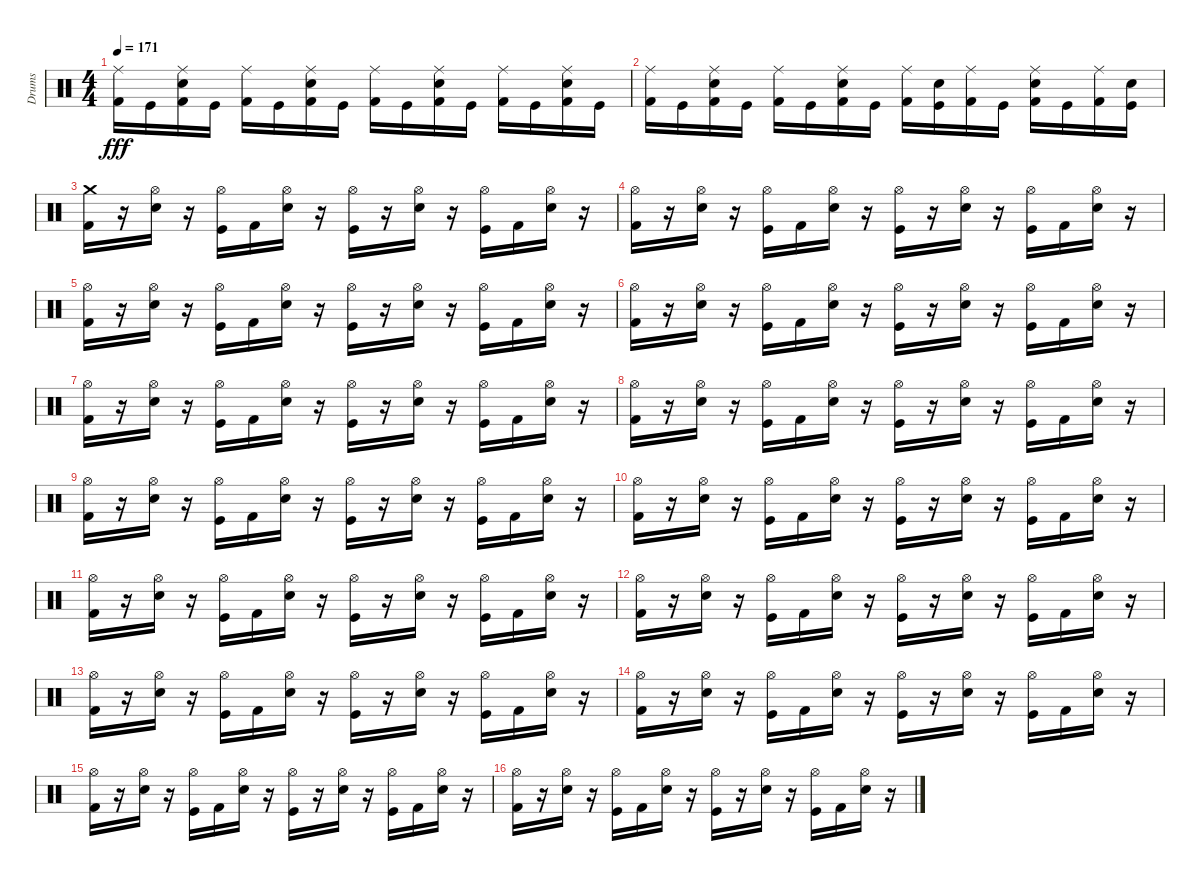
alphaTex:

\track ("Drums" "Drums") {instrument percussion}
\staff {score}
\articulation defaults
\ts (4 4)
\tempo 171
\clef neutral
\ks c
("Ride (middle)" "Kick (hit) 2").16{dy fff} "Kick (hit)".16 ("Ride (middle)" "Electric Snare (hit)" "Kick (hit) 2").16 "Kick (hit)".16 ("Ride (middle)" "Kick (hit) 2").16 "Kick (hit)".16 ("Ride (middle)" "Electric Snare (hit)" "Kick (hit) 2").16 "Kick (hit)".16 ("Ride (middle)" "Kick (hit) 2").16 "Kick (hit)".16 ("Ride (middle)" "Electric Snare (hit)" "Kick (hit) 2").16 "Kick (hit)".16 ("Ride (middle)" "Kick (hit) 2").16 "Kick (hit)".16 ("Ride (middle)" "Electric Snare (hit)" "Kick (hit) 2").16 "Kick (hit)".16 |
("Ride (middle)" "Kick (hit) 2").16 "Kick (hit)".16 ("Ride (middle)" "Electric Snare (hit)" "Kick (hit) 2").16 "Kick (hit)".16 ("Ride (middle)" "Kick (hit) 2").16 "Kick (hit)".16 ("Ride (middle)" "Electric Snare (hit)" "Kick (hit) 2").16 "Kick (hit)".16 ("Ride (middle)" "Kick (hit) 2").16 ("Electric Snare (hit)" "Kick (hit)").16 ("Ride (middle)" "Kick (hit) 2").16 "Kick (hit)".16 ("Ride (middle)" "Electric Snare (hit)" "Kick (hit) 2").16 "Kick (hit)".16 ("Ride (middle)" "Kick (hit) 2").16 ("Electric Snare (hit)" "Kick (hit)").16 |
("Crash medium (hit)" "Kick (hit) 2").16 r.16 ("Hi-Hat (open)" "Electric Snare (hit)").16 r.16 ("Hi-Hat (open)" "Kick (hit)").16 "Kick (hit) 2".16 ("Hi-Hat (open)" "Electric Snare (hit)").16 r.16 ("Hi-Hat (open)" "Kick (hit)").16 r.16 ("Hi-Hat (open)" "Electric Snare (hit)").16 r.16 ("Hi-Hat (open)" "Kick (hit)").16 "Kick (hit) 2".16 ("Hi-Hat (open)" "Electric Snare (hit)").16 r.16 |
("Hi-Hat (open)" "Kick (hit) 2").16 r.16 ("Hi-Hat (open)" "Electric Snare (hit)").16 r.16 ("Hi-Hat (open)" "Kick (hit)").16 "Kick (hit) 2".16 ("Hi-Hat (open)" "Electric Snare (hit)").16 r.16 ("Hi-Hat (open)" "Kick (hit)").16 r.16 ("Hi-Hat (open)" "Electric Snare (hit)").16 r.16 ("Hi-Hat (open)" "Kick (hit)").16 "Kick (hit) 2".16 ("Hi-Hat (open)" "Electric Snare (hit)").16 r.16 |
("Hi-Hat (open)" "Kick (hit) 2").16 r.16 ("Hi-Hat (open)" "Electric Snare (hit)").16 r.16 ("Hi-Hat (open)" "Kick (hit)").16 "Kick (hit) 2".16 ("Hi-Hat (open)" "Electric Snare (hit)").16 r.16 ("Hi-Hat (open)" "Kick (hit)").16 r.16 ("Hi-Hat (open)" "Electric Snare (hit)").16 r.16 ("Hi-Hat (open)" "Kick (hit)").16 "Kick (hit) 2".16 ("Hi-Hat (open)" "Electric Snare (hit)").16 r.16 |
("Hi-Hat (open)" "Kick (hit) 2").16 r.16 ("Hi-Hat (open)" "Electric Snare (hit)").16 r.16 ("Hi-Hat (open)" "Kick (hit)").16 "Kick (hit) 2".16 ("Hi-Hat (open)" "Electric Snare (hit)").16 r.16 ("Hi-Hat (open)" "Kick (hit)").16 r.16 ("Hi-Hat (open)" "Electric Snare (hit)").16 r.16 ("Hi-Hat (open)" "Kick (hit)").16 "Kick (hit) 2".16 ("Hi-Hat (open)" "Electric Snare (hit)").16 r.16 |
("Hi-Hat (open)" "Kick (hit) 2").16 r.16 ("Hi-Hat (open)" "Electric Snare (hit)").16 r.16 ("Hi-Hat (open)" "Kick (hit)").16 "Kick (hit) 2".16 ("Hi-Hat (open)" "Electric Snare (hit)").16 r.16 ("Hi-Hat (open)" "Kick (hit)").16 r.16 ("Hi-Hat (open)" "Electric Snare (hit)").16 r.16 ("Hi-Hat (open)" "Kick (hit)").16 "Kick (hit) 2".16 ("Hi-Hat (open)" "Electric Snare (hit)").16 r.16 |
("Hi-Hat (open)" "Kick (hit) 2").16 r.16 ("Hi-Hat (open)" "Electric Snare (hit)").16 r.16 ("Hi-Hat (open)" "Kick (hit)").16 "Kick (hit) 2".16 ("Hi-Hat (open)" "Electric Snare (hit)").16 r.16 ("Hi-Hat (open)" "Kick (hit)").16 r.16 ("Hi-Hat (open)" "Electric Snare (hit)").16 r.16 ("Hi-Hat (open)" "Kick (hit)").16 "Kick (hit) 2".16 ("Hi-Hat (open)" "Electric Snare (hit)").16 r.16 |
("Hi-Hat (open)" "Kick (hit) 2").16 r.16 ("Hi-Hat (open)" "Electric Snare (hit)").16 r.16 ("Hi-Hat (open)" "Kick (hit)").16 "Kick (hit) 2".16 ("Hi-Hat (open)" "Electric Snare (hit)").16 r.16 ("Hi-Hat (open)" "Kick (hit)").16 r.16 ("Hi-Hat (open)" "Electric Snare (hit)").16 r.16 ("Hi-Hat (open)" "Kick (hit)").16 "Kick (hit) 2".16 ("Hi-Hat (open)" "Electric Snare (hit)").16 r.16 |
("Hi-Hat (open)" "Kick (hit) 2").16 r.16 ("Hi-Hat (open)" "Electric Snare (hit)").16 r.16 ("Hi-Hat (open)" "Kick (hit)").16 "Kick (hit) 2".16 ("Hi-Hat (open)" "Electric Snare (hit)").16 r.16 ("Hi-Hat (open)" "Kick (hit)").16 r.16 ("Hi-Hat (open)" "Electric Snare (hit)").16 r.16 ("Hi-Hat (open)" "Kick (hit)").16 "Kick (hit) 2".16 ("Hi-Hat (open)" "Electric Snare (hit)").16 r.16 |
("Hi-Hat (open)" "Kick (hit) 2").16 r.16 ("Hi-Hat (open)" "Electric Snare (hit)").16 r.16 ("Hi-Hat (open)" "Kick (hit)").16 "Kick (hit) 2".16 ("Hi-Hat (open)" "Electric Snare (hit)").16 r.16 ("Hi-Hat (open)" "Kick (hit)").16 r.16 ("Hi-Hat (open)" "Electric Snare (hit)").16 r.16 ("Hi-Hat (open)" "Kick (hit)").16 "Kick (hit) 2".16 ("Hi-Hat (open)" "Electric Snare (hit)").16 r.16 |
("Hi-Hat (open)" "Kick (hit) 2").16 r.16 ("Hi-Hat (open)" "Electric Snare (hit)").16 r.16 ("Hi-Hat (open)" "Kick (hit)").16 "Kick (hit) 2".16 ("Hi-Hat (open)" "Electric Snare (hit)").16 r.16 ("Hi-Hat (open)" "Kick (hit)").16 r.16 ("Hi-Hat (open)" "Electric Snare (hit)").16 r.16 ("Hi-Hat (open)" "Kick (hit)").16 "Kick (hit) 2".16 ("Hi-Hat (open)" "Electric Snare (hit)").16 r.16 |
("Hi-Hat (open)" "Kick (hit) 2").16 r.16 ("Hi-Hat (open)" "Electric Snare (hit)").16 r.16 ("Hi-Hat (open)" "Kick (hit)").16 "Kick (hit) 2".16 ("Hi-Hat (open)" "Electric Snare (hit)").16 r.16 ("Hi-Hat (open)" "Kick (hit)").16 r.16 ("Hi-Hat (open)" "Electric Snare (hit)").16 r.16 ("Hi-Hat (open)" "Kick (hit)").16 "Kick (hit) 2".16 ("Hi-Hat (open)" "Electric Snare (hit)").16 r.16 |
("Hi-Hat (open)" "Kick (hit) 2").16 r.16 ("Hi-Hat (open)" "Electric Snare (hit)").16 r.16 ("Hi-Hat (open)" "Kick (hit)").16 "Kick (hit) 2".16 ("Hi-Hat (open)" "Electric Snare (hit)").16 r.16 ("Hi-Hat (open)" "Kick (hit)").16 r.16 ("Hi-Hat (open)" "Electric Snare (hit)").16 r.16 ("Hi-Hat (open)" "Kick (hit)").16 "Kick (hit) 2".16 ("Hi-Hat (open)" "Electric Snare (hit)").16 r.16 |
("Hi-Hat (open)" "Kick (hit) 2").16 r.16 ("Hi-Hat (open)" "Electric Snare (hit)").16 r.16 ("Hi-Hat (open)" "Kick (hit)").16 "Kick (hit) 2".16 ("Hi-Hat (open)" "Electric Snare (hit)").16 r.16 ("Hi-Hat (open)" "Kick (hit)").16 r.16 ("Hi-Hat (open)" "Electric Snare (hit)").16 r.16 ("Hi-Hat (open)" "Kick (hit)").16 "Kick (hit) 2".16 ("Hi-Hat (open)" "Electric Snare (hit)").16 r.16 |
("Hi-Hat (open)" "Kick (hit) 2").16 r.16 ("Hi-Hat (open)" "Electric Snare (hit)").16 r.16 ("Hi-Hat (open)" "Kick (hit)").16 "Kick (hit) 2".16 ("Hi-Hat (open)" "Electric Snare (hit)").16 r.16 ("Hi-Hat (open)" "Kick (hit)").16 r.16 ("Hi-Hat (open)" "Electric Snare (hit)").16 r.16 ("Hi-Hat (open)" "Kick (hit)").16 "Kick (hit) 2".16 ("Hi-Hat (open)" "Electric Snare (hit)").16 r.16
